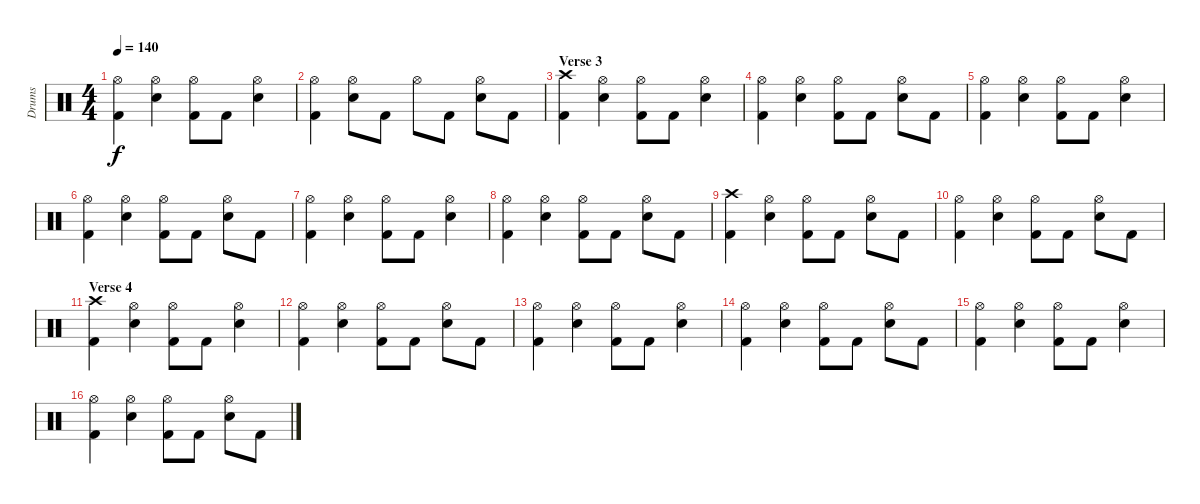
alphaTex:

\track ("Drums" "Drums") {instrument percussion}
\staff {score}
\articulation defaults
\ts (4 4)
\tempo 140
\clef neutral
\ks c
("Hi-Hat (open)" "Kick (hit) 2").4{dy f} ("Hi-Hat (open)" "Electric Snare (hit)").4 ("Hi-Hat (open)" "Kick (hit) 2").8 "Kick (hit) 2".8 ("Hi-Hat (open)" "Electric Snare (hit)").4 |
("Hi-Hat (open)" "Kick (hit) 2").4 ("Hi-Hat (open)" "Electric Snare (hit)").8 "Kick (hit) 2".8 "Hi-Hat (open)".8 "Kick (hit) 2".8 ("Hi-Hat (open)" "Electric Snare (hit)").8 "Kick (hit) 2".8 |
\section ("" "Verse 3")
("Crash high (hit)" "Kick (hit) 2").4 ("Hi-Hat (open)" "Electric Snare (hit)").4 ("Hi-Hat (open)" "Kick (hit) 2").8 "Kick (hit) 2".8 ("Hi-Hat (open)" "Electric Snare (hit)").4 |
("Hi-Hat (open)" "Kick (hit) 2").4 ("Hi-Hat (open)" "Electric Snare (hit)").4 ("Hi-Hat (open)" "Kick (hit) 2").8 "Kick (hit) 2".8 ("Hi-Hat (open)" "Electric Snare (hit)").8 "Kick (hit) 2".8 |
("Hi-Hat (open)" "Kick (hit) 2").4 ("Hi-Hat (open)" "Electric Snare (hit)").4 ("Hi-Hat (open)" "Kick (hit) 2").8 "Kick (hit) 2".8 ("Hi-Hat (open)" "Electric Snare (hit)").4 |
("Hi-Hat (open)" "Kick (hit) 2").4 ("Hi-Hat (open)" "Electric Snare (hit)").4 ("Hi-Hat (open)" "Kick (hit) 2").8 "Kick (hit) 2".8 ("Hi-Hat (open)" "Electric Snare (hit)").8 "Kick (hit) 2".8 |
("Hi-Hat (open)" "Kick (hit) 2").4 ("Hi-Hat (open)" "Electric Snare (hit)").4 ("Hi-Hat (open)" "Kick (hit) 2").8 "Kick (hit) 2".8 ("Hi-Hat (open)" "Electric Snare (hit)").4 |
("Hi-Hat (open)" "Kick (hit) 2").4 ("Hi-Hat (open)" "Electric Snare (hit)").4 ("Hi-Hat (open)" "Kick (hit) 2").8 "Kick (hit) 2".8 ("Hi-Hat (open)" "Electric Snare (hit)").8 "Kick (hit) 2".8 |
("Crash high (hit)" "Kick (hit) 2").4 ("Hi-Hat (open)" "Electric Snare (hit)").4 ("Hi-Hat (open)" "Kick (hit) 2").8 "Kick (hit) 2".8 ("Hi-Hat (open)" "Electric Snare (hit)").8 "Kick (hit) 2".8 |
("Hi-Hat (open)" "Kick (hit) 2").4 ("Hi-Hat (open)" "Electric Snare (hit)").4 ("Hi-Hat (open)" "Kick (hit) 2").8 "Kick (hit) 2".8 ("Hi-Hat (open)" "Electric Snare (hit)").8 "Kick (hit) 2".8 |
\section ("" "Verse 4")
("Crash high (hit)" "Kick (hit) 2").4 ("Hi-Hat (open)" "Electric Snare (hit)").4 ("Hi-Hat (open)" "Kick (hit) 2").8 "Kick (hit) 2".8 ("Hi-Hat (open)" "Electric Snare (hit)").4 |
("Hi-Hat (open)" "Kick (hit) 2").4 ("Hi-Hat (open)" "Electric Snare (hit)").4 ("Hi-Hat (open)" "Kick (hit) 2").8 "Kick (hit) 2".8 ("Hi-Hat (open)" "Electric Snare (hit)").8 "Kick (hit) 2".8 |
("Hi-Hat (open)" "Kick (hit) 2").4 ("Hi-Hat (open)" "Electric Snare (hit)").4 ("Hi-Hat (open)" "Kick (hit) 2").8 "Kick (hit) 2".8 ("Hi-Hat (open)" "Electric Snare (hit)").4 |
("Hi-Hat (open)" "Kick (hit) 2").4 ("Hi-Hat (open)" "Electric Snare (hit)").4 ("Hi-Hat (open)" "Kick (hit) 2").8 "Kick (hit) 2".8 ("Hi-Hat (open)" "Electric Snare (hit)").8 "Kick (hit) 2".8 |
("Hi-Hat (open)" "Kick (hit) 2").4 ("Hi-Hat (open)" "Electric Snare (hit)").4 ("Hi-Hat (open)" "Kick (hit) 2").8 "Kick (hit) 2".8 ("Hi-Hat (open)" "Electric Snare (hit)").4 |
("Hi-Hat (open)" "Kick (hit) 2").4 ("Hi-Hat (open)" "Electric Snare (hit)").4 ("Hi-Hat (open)" "Kick (hit) 2").8 "Kick (hit) 2".8 ("Hi-Hat (open)" "Electric Snare (hit)").8 "Kick (hit) 2".8
